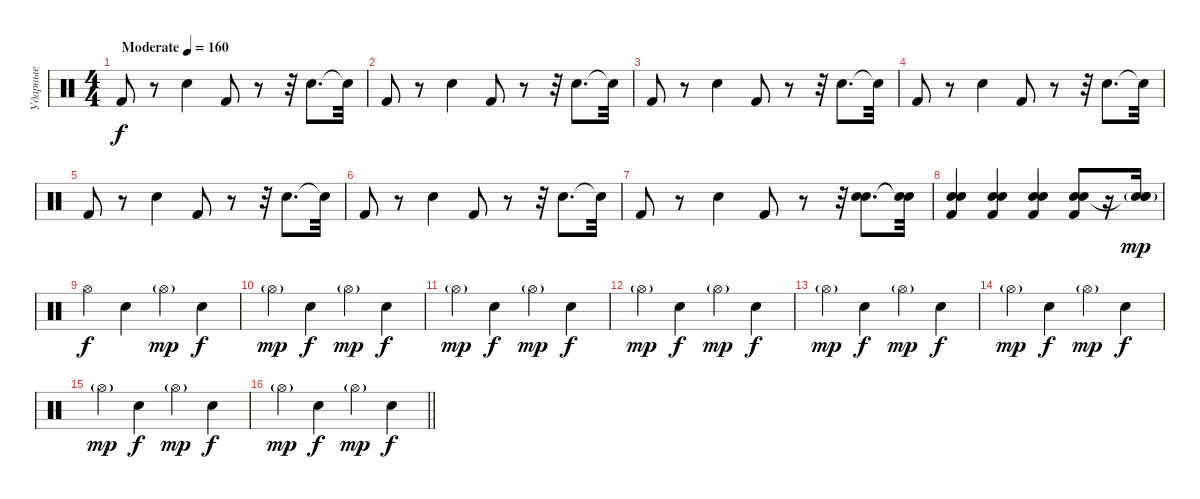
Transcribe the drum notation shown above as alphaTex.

\track ("Ударные" "Ударные") {instrument percussion}
\staff {score}
\articulation defaults
\ts (4 4)
\tempo (160 "Moderate")
\clef neutral
\ks c "Kick (hit) 2".8{dy f}
r.8 "Electric Snare (hit)".4 "Kick (hit) 2".8 r.8 r.32 "Electric Snare (hit)".8{d} "Snare (hit)"{t}.32 |
"Kick (hit) 2".8 r.8 "Electric Snare (hit)".4 "Kick (hit) 2".8 r.8 r.32 "Electric Snare (hit)".8{d} "Snare (hit)"{t}.32 |
"Kick (hit) 2".8 r.8 "Electric Snare (hit)".4 "Kick (hit) 2".8 r.8 r.32 "Electric Snare (hit)".8{d} "Snare (hit)"{t}.32 |
"Kick (hit) 2".8 r.8 "Electric Snare (hit)".4 "Kick (hit) 2".8 r.8 r.32 "Electric Snare (hit)".8{d} "Snare (hit)"{t}.32 |
"Kick (hit) 2".8 r.8 "Electric Snare (hit)".4 "Kick (hit) 2".8 r.8 r.32 "Electric Snare (hit)".8{d} "Snare (hit)"{t}.32 |
"Kick (hit) 2".8 r.8 "Electric Snare (hit)".4 "Kick (hit) 2".8 r.8 r.32 "Electric Snare (hit)".8{d} "Snare (hit)"{t}.32 |
"Kick (hit) 2".8 r.8 "Electric Snare (hit)".4 "Kick (hit) 2".8 r.8 r.32 ("Electric Snare (hit)" "Snare (hit) 2").8{d} ("Snare (hit)"{t} "Snare (hit)"{t}).32 |
("Kick (hit) 2" "Electric Snare (hit)" "Snare (hit) 2").4 ("Kick (hit) 2" "Electric Snare (hit)" "Snare (hit) 2").4 ("Kick (hit) 2" "Electric Snare (hit)" "Snare (hit) 2").4 ("Kick (hit) 2" "Electric Snare (hit)" "Snare (hit) 2").8 r.16 ("Snare (hit) 2"{g} "Electric Snare (hit)"{g} "Electric Snare (hit)"{t}).16{dy mp} |
"Hi-Hat (open)".4{dy f} "Electric Snare (hit)".4 "Hi-Hat (open)"{g}.4{dy mp} "Electric Snare (hit)".4{dy f} |
"Hi-Hat (open)"{g}.4{dy mp} "Electric Snare (hit)".4{dy f} "Hi-Hat (open)"{g}.4{dy mp} "Electric Snare (hit)".4{dy f} |
"Hi-Hat (open)"{g}.4{dy mp} "Electric Snare (hit)".4{dy f} "Hi-Hat (open)"{g}.4{dy mp} "Electric Snare (hit)".4{dy f} |
"Hi-Hat (open)"{g}.4{dy mp} "Electric Snare (hit)".4{dy f} "Hi-Hat (open)"{g}.4{dy mp} "Electric Snare (hit)".4{dy f} |
"Hi-Hat (open)"{g}.4{dy mp} "Electric Snare (hit)".4{dy f} "Hi-Hat (open)"{g}.4{dy mp} "Electric Snare (hit)".4{dy f} |
"Hi-Hat (open)"{g}.4{dy mp} "Electric Snare (hit)".4{dy f} "Hi-Hat (open)"{g}.4{dy mp} "Electric Snare (hit)".4{dy f} |
"Hi-Hat (open)"{g}.4{dy mp} "Electric Snare (hit)".4{dy f} "Hi-Hat (open)"{g}.4{dy mp} "Electric Snare (hit)".4{dy f} |
\barLineRight lightlight "Hi-Hat (open)"{g}.4{dy mp} "Electric Snare (hit)".4{dy f} "Hi-Hat (open)"{g}.4{dy mp} "Electric Snare (hit)".4{dy f}
